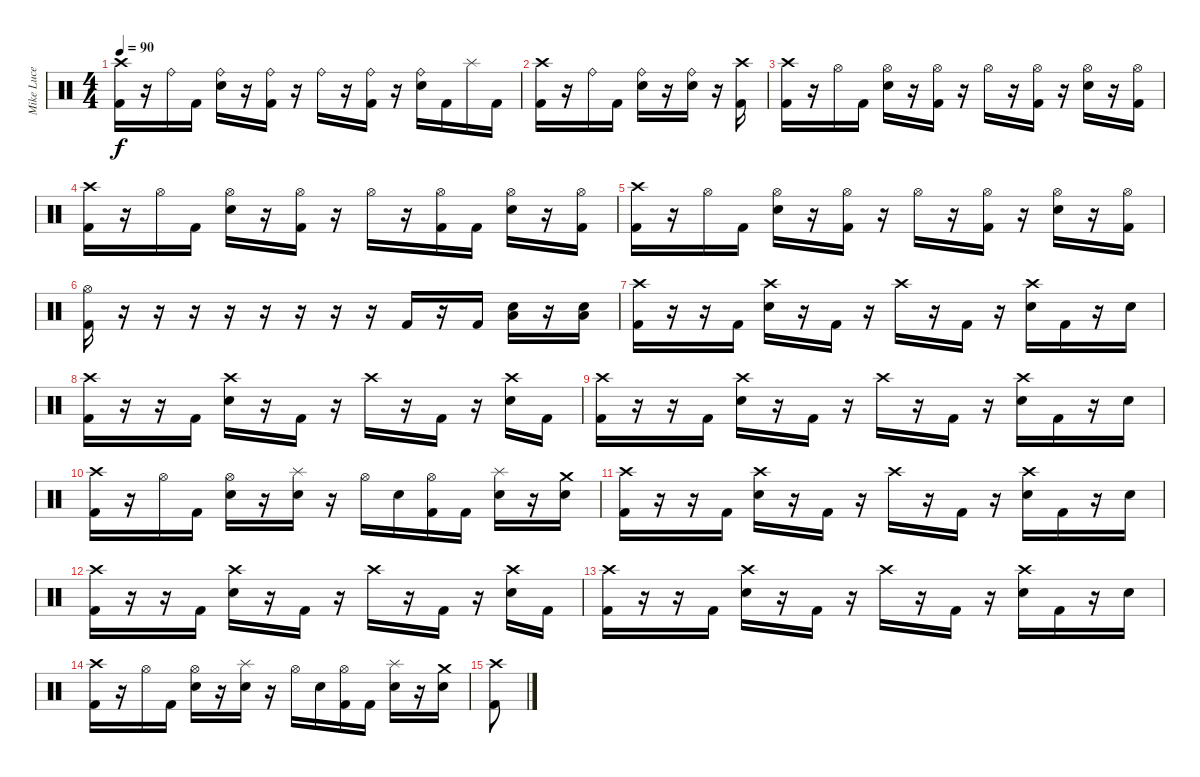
\track ("Mike Luce" "Mike Luce") {instrument percussion}
\staff {score}
\articulation defaults
\ts (4 4)
\tempo 90
\clef neutral
\ks c
("Crash high (hit)" "Kick (hit) 2").16{dy f} r.16 "Ride (bell)".16 "Kick (hit) 2".16 ("Ride (bell)" "Electric Snare (hit)").16 r.16 ("Ride (bell)" "Kick (hit) 2").16 r.16 "Ride (bell)".16 r.16 ("Ride (bell)" "Kick (hit) 2").16 r.16 ("Ride (bell)" "Electric Snare (hit)").16 "Kick (hit) 2".16 "Splash (hit)".16 "Kick (hit) 2".16 |
("Crash high (hit)" "Kick (hit) 2").16 r.16 "Ride (bell)".16 "Kick (hit) 2".16 ("Ride (bell)" "Electric Snare (hit)").16 r.16 ("Ride (bell)" "Electric Snare (hit)").16 r.16 ("Crash high (hit)" "Kick (hit) 2").16 |
("Crash high (hit)" "Kick (hit) 2").16 r.16 "Hi-Hat (open)".16 "Kick (hit) 2".16 ("Hi-Hat (open)" "Electric Snare (hit)").16 r.16 ("Hi-Hat (open)" "Kick (hit) 2").16 r.16 "Hi-Hat (open)".16 r.16 ("Hi-Hat (open)" "Kick (hit) 2").16 r.16 ("Hi-Hat (open)" "Electric Snare (hit)").16 r.16 ("Hi-Hat (open)" "Kick (hit) 2").16 |
("Crash high (hit)" "Kick (hit) 2").16 r.16 "Hi-Hat (open)".16 "Kick (hit) 2".16 ("Hi-Hat (open)" "Electric Snare (hit)").16 r.16 ("Hi-Hat (open)" "Kick (hit) 2").16 r.16 "Hi-Hat (open)".16 r.16 ("Hi-Hat (open)" "Kick (hit) 2").16 "Kick (hit) 2".16 ("Hi-Hat (open)" "Electric Snare (hit)").16 r.16 ("Hi-Hat (open)" "Kick (hit) 2").16 |
("Crash high (hit)" "Kick (hit) 2").16 r.16 "Hi-Hat (open)".16 "Kick (hit) 2".16 ("Hi-Hat (open)" "Electric Snare (hit)").16 r.16 ("Hi-Hat (open)" "Kick (hit) 2").16 r.16 "Hi-Hat (open)".16 r.16 ("Hi-Hat (open)" "Kick (hit) 2").16 r.16 ("Hi-Hat (open)" "Electric Snare (hit)").16 r.16 ("Hi-Hat (open)" "Kick (hit) 2").16 |
("Hi-Hat (open)" "Kick (hit) 2").16 r.16 r.16 r.16 r.16 r.16 r.16 r.16 r.16 "Kick (hit) 2".16 r.16 "Kick (hit) 2".16 ("Low Tom (hit)" "Electric Snare (hit)").16 r.16 ("Low Tom (hit)" "Electric Snare (hit)").16 |
("Crash high (hit)" "Kick (hit) 2").16 r.16 r.16 "Kick (hit) 2".16 ("Crash high (hit)" "Electric Snare (hit)").16 r.16 "Kick (hit) 2".16 r.16 "Crash high (hit)".16 r.16 "Kick (hit) 2".16 r.16 ("Crash high (hit)" "Electric Snare (hit)").16 "Kick (hit) 2".16 r.16 "Electric Snare (hit)".16 |
("Crash high (hit)" "Kick (hit) 2").16 r.16 r.16 "Kick (hit) 2".16 ("Crash high (hit)" "Electric Snare (hit)").16 r.16 "Kick (hit) 2".16 r.16 "Crash high (hit)".16 r.16 "Kick (hit) 2".16 r.16 ("Crash high (hit)" "Electric Snare (hit)").16 "Kick (hit) 2".16 |
("Crash high (hit)" "Kick (hit) 2").16 r.16 r.16 "Kick (hit) 2".16 ("Crash high (hit)" "Electric Snare (hit)").16 r.16 "Kick (hit) 2".16 r.16 "Crash high (hit)".16 r.16 "Kick (hit) 2".16 r.16 ("Crash high (hit)" "Electric Snare (hit)").16 "Kick (hit) 2".16 r.16 "Electric Snare (hit)".16 |
("Crash high (hit)" "Kick (hit) 2").16 r.16 "Hi-Hat (open)".16 "Kick (hit) 2".16 ("Hi-Hat (open)" "Electric Snare (hit)").16 r.16 ("Splash (hit)" "Electric Snare (hit)").16 r.16 "Hi-Hat (open)".16 "Electric Snare (hit)".16 ("Hi-Hat (open)" "Kick (hit) 2").16 "Kick (hit) 2".16 ("Splash (hit)" "Electric Snare (hit)").16 r.16 ("Crash medium (hit)" "Electric Snare (hit)").16 |
("Crash high (hit)" "Kick (hit) 2").16 r.16 r.16 "Kick (hit) 2".16 ("Crash high (hit)" "Electric Snare (hit)").16 r.16 "Kick (hit) 2".16 r.16 "Crash high (hit)".16 r.16 "Kick (hit) 2".16 r.16 ("Crash high (hit)" "Electric Snare (hit)").16 "Kick (hit) 2".16 r.16 "Electric Snare (hit)".16 |
("Crash high (hit)" "Kick (hit) 2").16 r.16 r.16 "Kick (hit) 2".16 ("Crash high (hit)" "Electric Snare (hit)").16 r.16 "Kick (hit) 2".16 r.16 "Crash high (hit)".16 r.16 "Kick (hit) 2".16 r.16 ("Crash high (hit)" "Electric Snare (hit)").16 "Kick (hit) 2".16 |
("Crash high (hit)" "Kick (hit) 2").16 r.16 r.16 "Kick (hit) 2".16 ("Crash high (hit)" "Electric Snare (hit)").16 r.16 "Kick (hit) 2".16 r.16 "Crash high (hit)".16 r.16 "Kick (hit) 2".16 r.16 ("Crash high (hit)" "Electric Snare (hit)").16 "Kick (hit) 2".16 r.16 "Electric Snare (hit)".16 |
("Crash high (hit)" "Kick (hit) 2").16 r.16 "Hi-Hat (open)".16 "Kick (hit) 2".16 ("Hi-Hat (open)" "Electric Snare (hit)").16 r.16 ("Splash (hit)" "Electric Snare (hit)").16 r.16 "Hi-Hat (open)".16 "Electric Snare (hit)".16 ("Hi-Hat (open)" "Kick (hit) 2").16 "Kick (hit) 2".16 ("Splash (hit)" "Electric Snare (hit)").16 r.16 ("Crash medium (hit)" "Electric Snare (hit)").16 |
("Crash high (hit)" "Kick (hit) 2").8
